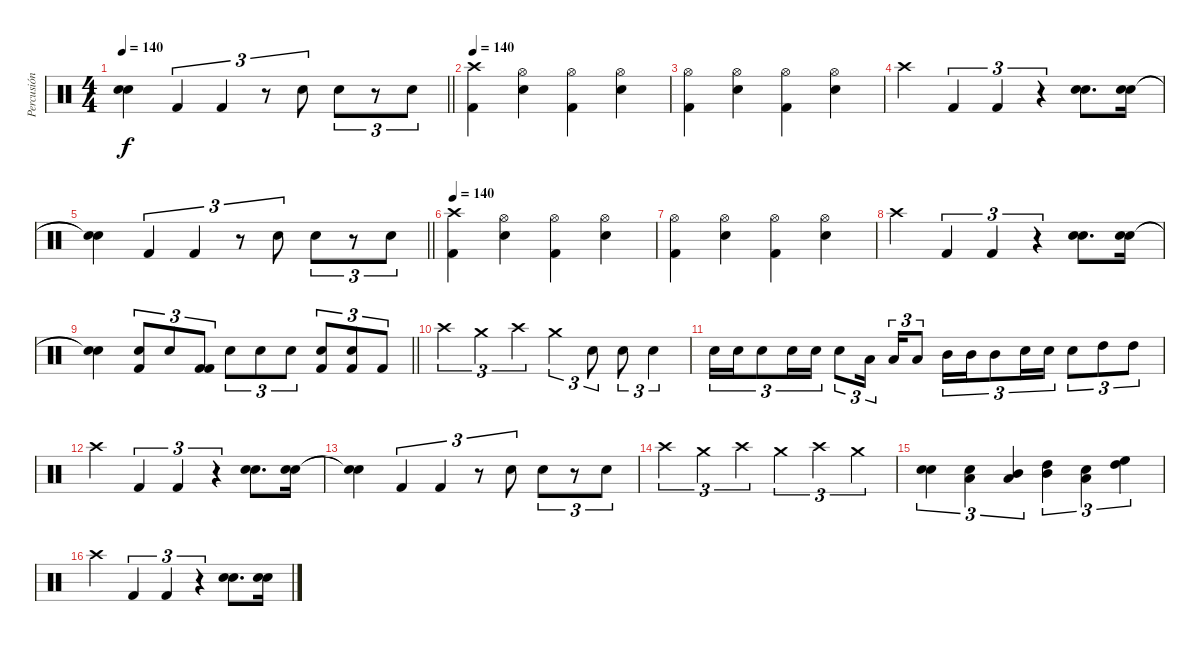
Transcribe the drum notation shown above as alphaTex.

\track ("Percusión" "Percusión") {instrument percussion}
\staff {score}
\articulation defaults
\ts (4 4)
\tempo 140
\clef neutral
\barLineRight lightlight
\ks c
("Snare (hit)"{t} "Snare (hit)"{t}).4{dy f} "Kick (hit) 2".4{tu (3 2)} "Kick (hit) 2".4{tu (3 2)} r.8{tu (3 2)} "Snare (hit) 2".8{tu (3 2)} "Snare (hit) 2".8{tu (3 2)} r.8{tu (3 2)} "Snare (hit) 2".8{tu (3 2)} |
\tempo 140
("Crash high (hit)" "Kick (hit) 2").4 ("Hi-Hat (open)" "Electric Snare (hit)").4 ("Hi-Hat (open)" "Kick (hit) 2").4 ("Hi-Hat (open)" "Electric Snare (hit)").4 |
("Hi-Hat (open)" "Kick (hit) 2").4 ("Hi-Hat (open)" "Electric Snare (hit)").4 ("Hi-Hat (open)" "Kick (hit) 2").4 ("Hi-Hat (open)" "Electric Snare (hit)").4 |
"Crash high (hit)".4 "Kick (hit) 2".4{tu (3 2)} "Kick (hit) 2".4{tu (3 2)} r.4{tu (3 2)} ("Electric Snare (hit)" "Snare (hit) 2").8{d} ("Electric Snare (hit)" "Snare (hit) 2").16 |
\barLineRight lightlight
("Snare (hit)"{t} "Snare (hit)"{t}).4 "Kick (hit) 2".4{tu (3 2)} "Kick (hit) 2".4{tu (3 2)} r.8{tu (3 2)} "Snare (hit) 2".8{tu (3 2)} "Snare (hit) 2".8{tu (3 2)} r.8{tu (3 2)} "Snare (hit) 2".8{tu (3 2)} |
\tempo 140
("Crash high (hit)" "Kick (hit) 2").4 ("Hi-Hat (open)" "Electric Snare (hit)").4 ("Hi-Hat (open)" "Kick (hit) 2").4 ("Hi-Hat (open)" "Electric Snare (hit)").4 |
("Hi-Hat (open)" "Kick (hit) 2").4 ("Hi-Hat (open)" "Electric Snare (hit)").4 ("Hi-Hat (open)" "Kick (hit) 2").4 ("Hi-Hat (open)" "Electric Snare (hit)").4 |
"Crash high (hit)".4 "Kick (hit) 2".4{tu (3 2)} "Kick (hit) 2".4{tu (3 2)} r.4{tu (3 2)} ("Electric Snare (hit)" "Snare (hit) 2").8{d} ("Electric Snare (hit)" "Snare (hit) 2").16 |
\barLineRight lightlight
("Snare (hit)"{t} "Snare (hit)"{t}).4 ("Snare (hit) 2" "Kick (hit) 2").8{tu (3 2)} "Snare (hit) 2".8{tu (3 2)} ("Kick (hit) 2" "Kick (hit) 2").8{tu (3 2)} "Electric Snare (hit)".8{tu (3 2)} "Electric Snare (hit)".8{tu (3 2)} "Electric Snare (hit)".8{tu (3 2)} ("Snare (hit) 2" "Kick (hit) 2").8{tu (3 2)} ("Snare (hit) 2" "Kick (hit) 2").8{tu (3 2)} "Kick (hit) 2".8{tu (3 2)} |
"Crash high (hit)".4{tu (3 2)} "Crash medium (hit)".4{tu (3 2)} "Crash high (hit)".4{tu (3 2)} "Crash medium (hit)".4{tu (3 2)} "Snare (hit) 2".8{tu (3 2)} "Snare (hit) 2".8{tu (3 2)} "Snare (hit) 2".4{tu (3 2)} |
"Snare (hit) 2".16{tu (3 2)} "Snare (hit) 2".16{tu (3 2)} "Snare (hit) 2".8{tu (3 2)} "Electric Snare (hit)".16{tu (3 2)} "Electric Snare (hit)".16{tu (3 2)} "Electric Snare (hit)".8{tu (3 2)} "Low Tom (hit)".16{tu (3 2) beam splitsecondary} "Low Tom (hit)".16{tu (3 2)} "Low Tom (hit)".8{tu (3 2)} "Mid Tom (hit)".16{tu (3 2)} "Mid Tom (hit)".16{tu (3 2)} "Mid Tom (hit)".8{tu (3 2)} "Electric Snare (hit)".16{tu (3 2)} "Electric Snare (hit)".16{tu (3 2)} "Electric Snare (hit)".8{tu (3 2)} "High Tom (hit)".8{tu (3 2)} "High Tom (hit)".8{tu (3 2)} |
"Crash high (hit)".4 "Kick (hit) 2".4{tu (3 2)} "Kick (hit) 2".4{tu (3 2)} r.4{tu (3 2)} ("Electric Snare (hit)" "Snare (hit) 2").8{d} ("Electric Snare (hit)" "Snare (hit) 2").16 |
("Snare (hit)"{t} "Snare (hit)"{t}).4 "Kick (hit) 2".4{tu (3 2)} "Kick (hit) 2".4{tu (3 2)} r.8{tu (3 2)} "Snare (hit) 2".8{tu (3 2)} "Snare (hit) 2".8{tu (3 2)} r.8{tu (3 2)} "Snare (hit) 2".8{tu (3 2)} |
"Crash high (hit)".4{tu (3 2)} "Crash medium (hit)".4{tu (3 2)} "Crash high (hit)".4{tu (3 2)} "Crash medium (hit)".4{tu (3 2)} "Crash high (hit)".4{tu (3 2)} "Crash medium (hit)".4{tu (3 2)} |
("Electric Snare (hit)" "Snare (hit) 2").4{tu (3 2)} ("Low Tom (hit)" "Electric Snare (hit)").4{tu (3 2)} ("Mid Tom (hit)" "Low Tom (hit)").4{tu (3 2)} ("High Tom (hit)" "Mid Tom (hit)").4{tu (3 2)} ("Low Tom (hit)" "Electric Snare (hit)").4{tu (3 2)} ("High Floor Tom (hit)" "High Tom (hit)").4{tu (3 2)} |
"Crash high (hit)".4 "Kick (hit) 2".4{tu (3 2)} "Kick (hit) 2".4{tu (3 2)} r.4{tu (3 2)} ("Electric Snare (hit)" "Snare (hit) 2").8{d} ("Electric Snare (hit)" "Snare (hit) 2").16
